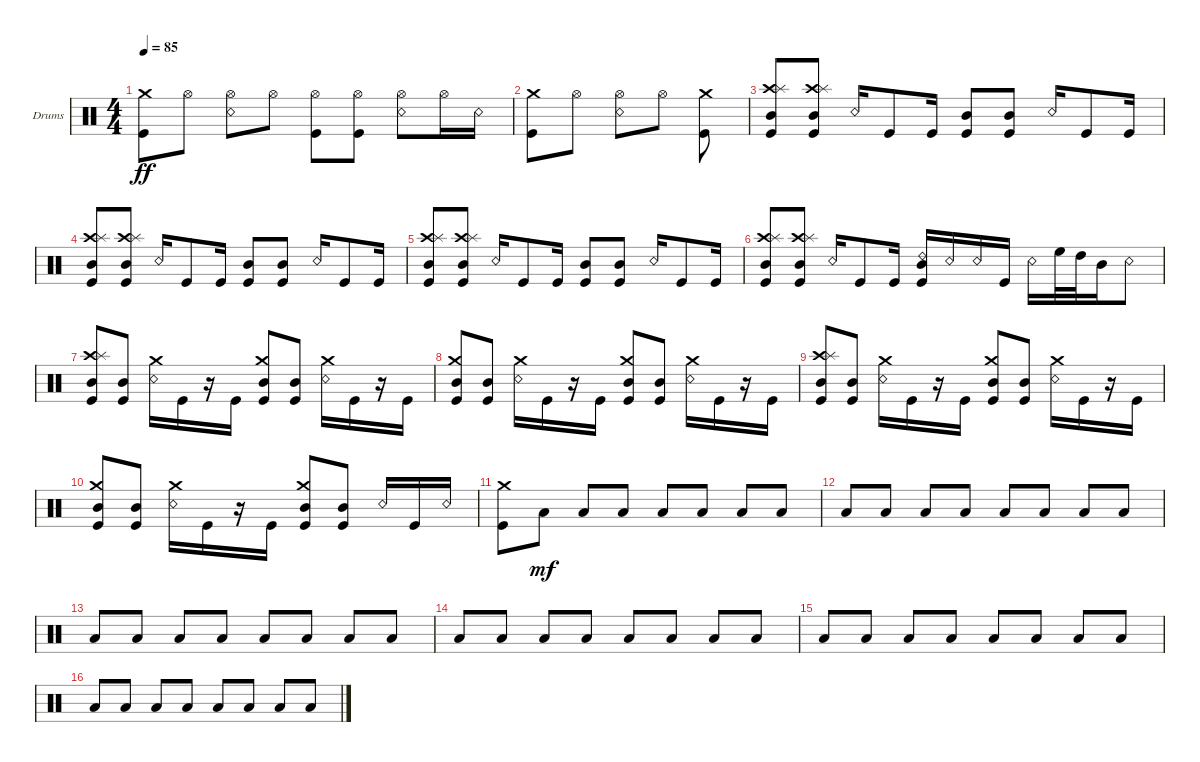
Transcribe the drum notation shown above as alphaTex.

\defaultSystemsLayout 4
\bracketExtendMode groupsimilarinstruments
\firstSystemTrackNameOrientation horizontal
\otherSystemsTrackNameOrientation horizontal
\track ("Drumkit" "Drums") {instrument percussion}
\staff {score}
\articulation defaults
\ts (4 4)
\tempo 85
\clef neutral
\scale
0.333333
\ks c
("Kick (hit)" "Crash medium (hit)").8{dy ff} "Hi-Hat (open)".8 ("Snare (rim shot)" "Hi-Hat (open)").8 "Hi-Hat (open)".8 ("Hi-Hat (open)" "Kick (hit)").8 ("Hi-Hat (open)" "Kick (hit)").8 ("Hi-Hat (open)" "Snare (rim shot)").8 "Hi-Hat (open)".16 "Snare (rim shot)".16 |
\scale
0.333333 ("Kick (hit)" "Crash medium (hit)").8 "Hi-Hat (open)".8 ("Snare (rim shot)" "Hi-Hat (open)").8 "Hi-Hat (open)".8 ("Kick (hit)" "Crash medium (hit)").8 |
\scale
0.333333 ("Crash high (hit)" "Splash (hit)" "Mid Tom (hit)" "Kick (hit)").8 ("Crash high (hit)" "Splash (hit)" "Mid Tom (hit)" "Kick (hit)").8 "Snare (rim shot)".16 "Kick (hit)".8 "Kick (hit)".16 ("Mid Tom (hit)" "Kick (hit)").8 ("Mid Tom (hit)" "Kick (hit)").8 "Snare (rim shot)".16 "Kick (hit)".8 "Kick (hit)".16 |
\scale
0.333333 ("Crash high (hit)" "Splash (hit)" "Mid Tom (hit)" "Kick (hit)").8 ("Crash high (hit)" "Splash (hit)" "Mid Tom (hit)" "Kick (hit)").8 "Snare (rim shot)".16 "Kick (hit)".8 "Kick (hit)".16 ("Mid Tom (hit)" "Kick (hit)").8 ("Mid Tom (hit)" "Kick (hit)").8 "Snare (rim shot)".16 "Kick (hit)".8 "Kick (hit)".16 |
\scale
0.333333 ("Crash high (hit)" "Splash (hit)" "Mid Tom (hit)" "Kick (hit)").8 ("Crash high (hit)" "Splash (hit)" "Mid Tom (hit)" "Kick (hit)").8 "Snare (rim shot)".16 "Kick (hit)".8 "Kick (hit)".16 ("Mid Tom (hit)" "Kick (hit)").8 ("Mid Tom (hit)" "Kick (hit)").8 "Snare (rim shot)".16 "Kick (hit)".8 "Kick (hit)".16 |
\scale
0.333333 ("Crash high (hit)" "Splash (hit)" "Mid Tom (hit)" "Kick (hit)").8 ("Crash high (hit)" "Splash (hit)" "Mid Tom (hit)" "Kick (hit)").8 "Snare (rim shot)".16 "Kick (hit)".8 "Kick (hit)".16 ("Mid Tom (hit)" "Kick (hit)" "Ride (bell) 2").16 "Snare (rim shot)".16 "Snare (rim shot)".16 "Kick (hit)".16 "Snare (rim shot)".16 "High Floor Tom (hit)".32 "High Tom (hit)".32 "Mid Tom (hit)".16 "Snare (rim shot)".8 |
\scale
0.333333 ("Crash high (hit)" "Splash (hit)" "Mid Tom (hit)" "Kick (hit)").8 ("Mid Tom (hit)" "Kick (hit)").8 ("Snare (rim shot)" "Crash medium (hit)").16 "Kick (hit)".16 r.16 "Kick (hit)".16 ("Mid Tom (hit)" "Kick (hit)" "Crash medium (hit)").8 ("Mid Tom (hit)" "Kick (hit)").8 ("Snare (rim shot)" "Crash medium (hit)").16 "Kick (hit)".16 r.16 "Kick (hit)".16 |
\scale
0.333333 ("Mid Tom (hit)" "Kick (hit)" "Crash medium (hit)").8 ("Mid Tom (hit)" "Kick (hit)").8 ("Snare (rim shot)" "Crash medium (hit)").16 "Kick (hit)".16 r.16 "Kick (hit)".16 ("Mid Tom (hit)" "Kick (hit)" "Crash medium (hit)").8 ("Mid Tom (hit)" "Kick (hit)").8 ("Snare (rim shot)" "Crash medium (hit)").16 "Kick (hit)".16 r.16 "Kick (hit)".16 |
\scale
0.333333 ("Crash high (hit)" "Splash (hit)" "Mid Tom (hit)" "Kick (hit)").8 ("Mid Tom (hit)" "Kick (hit)").8 ("Snare (rim shot)" "Crash medium (hit)").16 "Kick (hit)".16 r.16 "Kick (hit)".16 ("Mid Tom (hit)" "Kick (hit)" "Crash medium (hit)").8 ("Mid Tom (hit)" "Kick (hit)").8 ("Snare (rim shot)" "Crash medium (hit)").16 "Kick (hit)".16 r.16 "Kick (hit)".16 |
\scale
0.333333 ("Mid Tom (hit)" "Kick (hit)" "Crash medium (hit)").8 ("Mid Tom (hit)" "Kick (hit)").8 ("Snare (rim shot)" "Crash medium (hit)").16 "Kick (hit)".16 r.16 "Kick (hit)".16 ("Mid Tom (hit)" "Kick (hit)" "Crash medium (hit)").8 ("Mid Tom (hit)" "Kick (hit)").8 "Snare (rim shot)".16 "Kick (hit)".16 "Snare (rim shot)".16 |
\scale
0.333333 ("Kick (hit)" "Crash medium (hit)").8 "Low Tom (hit)".8{dy mf} "Low Tom (hit)".8 "Low Tom (hit)".8 "Low Tom (hit)".8 "Low Tom (hit)".8 "Low Tom (hit)".8 "Low Tom (hit)".8 |
\scale
0.333333 "Low Tom (hit)".8 "Low Tom (hit)".8 "Low Tom (hit)".8 "Low Tom (hit)".8 "Low Tom (hit)".8 "Low Tom (hit)".8 "Low Tom (hit)".8 "Low Tom (hit)".8 |
\scale
0.333333 "Low Tom (hit)".8 "Low Tom (hit)".8 "Low Tom (hit)".8 "Low Tom (hit)".8 "Low Tom (hit)".8 "Low Tom (hit)".8 "Low Tom (hit)".8 "Low Tom (hit)".8 |
\scale
0.333333 "Low Tom (hit)".8 "Low Tom (hit)".8 "Low Tom (hit)".8 "Low Tom (hit)".8 "Low Tom (hit)".8 "Low Tom (hit)".8 "Low Tom (hit)".8 "Low Tom (hit)".8 |
\scale
0.333333 "Low Tom (hit)".8 "Low Tom (hit)".8 "Low Tom (hit)".8 "Low Tom (hit)".8 "Low Tom (hit)".8 "Low Tom (hit)".8 "Low Tom (hit)".8 "Low Tom (hit)".8 |
\scale
0.333333 "Low Tom (hit)".8 "Low Tom (hit)".8 "Low Tom (hit)".8 "Low Tom (hit)".8 "Low Tom (hit)".8 "Low Tom (hit)".8 "Low Tom (hit)".8 "Low Tom (hit)".8
